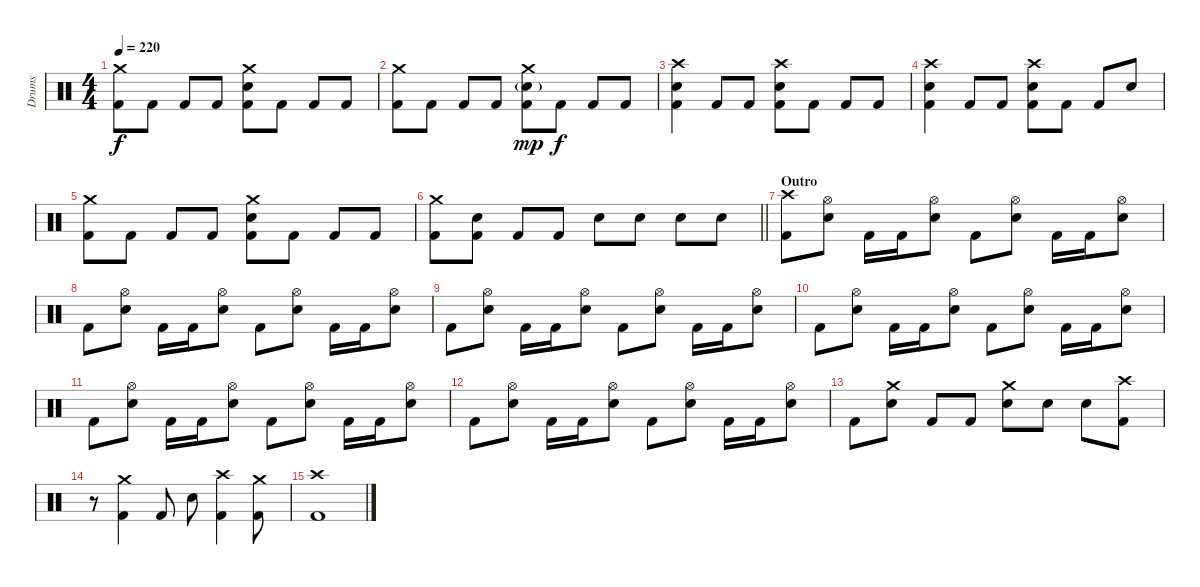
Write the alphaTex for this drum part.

\track ("Drums" "Drums") {instrument percussion}
\staff {score}
\articulation defaults
\ts (4 4)
\tempo 220
\clef neutral
\ks c
("Crash medium (hit)" "Kick (hit) 2").8{dy f} "Kick (hit) 2".8 "Kick (hit) 2".8 "Kick (hit) 2".8 ("Crash medium (hit)" "Snare (hit) 2" "Kick (hit) 2").8 "Kick (hit) 2".8 "Kick (hit) 2".8 "Kick (hit) 2".8 |
("Crash medium (hit)" "Kick (hit) 2").8 "Kick (hit) 2".8 "Kick (hit) 2".8 "Kick (hit) 2".8 ("Crash medium (hit)" "Snare (hit) 2"{g} "Kick (hit) 2").8{dy mp} "Kick (hit) 2".8{dy f} "Kick (hit) 2".8 "Kick (hit) 2".8 |
("Crash high (hit)" "Snare (hit) 2" "Kick (hit) 2").4 "Kick (hit) 2".8 "Kick (hit) 2".8 ("Crash high (hit)" "Snare (hit) 2" "Kick (hit) 2").8 "Kick (hit) 2".8 "Kick (hit) 2".8 "Kick (hit) 2".8 |
("Crash high (hit)" "Snare (hit) 2" "Kick (hit) 2").4 "Kick (hit) 2".8 "Kick (hit) 2".8 ("Crash high (hit)" "Snare (hit) 2" "Kick (hit) 2").8 "Kick (hit) 2".8 "Kick (hit) 2".8 "Snare (hit) 2".8 |
("Crash medium (hit)" "Kick (hit) 2").8 "Kick (hit) 2".8 "Kick (hit) 2".8 "Kick (hit) 2".8 ("Crash medium (hit)" "Snare (hit) 2" "Kick (hit) 2").8 "Kick (hit) 2".8 "Kick (hit) 2".8 "Kick (hit) 2".8 |
\barLineRight lightlight
("Crash medium (hit)" "Kick (hit) 2").8 ("Snare (hit) 2" "Kick (hit) 2").8 "Kick (hit) 2".8 "Kick (hit) 2".8 "Snare (hit) 2".8 "Snare (hit) 2".8 "Snare (hit) 2".8 "Snare (hit) 2".8 |
\section ("" "Outro")
("Crash high (hit)" "Kick (hit) 2").8 ("Hi-Hat (open)" "Snare (hit) 2").8 "Kick (hit) 2".16 "Kick (hit) 2".16 ("Hi-Hat (open)" "Snare (hit) 2").8 "Kick (hit) 2".8 ("Hi-Hat (open)" "Snare (hit) 2").8 "Kick (hit) 2".16 "Kick (hit) 2".16 ("Hi-Hat (open)" "Snare (hit) 2").8 |
"Kick (hit) 2".8 ("Hi-Hat (open)" "Snare (hit) 2").8 "Kick (hit) 2".16 "Kick (hit) 2".16 ("Hi-Hat (open)" "Snare (hit) 2").8 "Kick (hit) 2".8 ("Hi-Hat (open)" "Snare (hit) 2").8 "Kick (hit) 2".16 "Kick (hit) 2".16 ("Hi-Hat (open)" "Snare (hit) 2").8 |
"Kick (hit) 2".8 ("Hi-Hat (open)" "Snare (hit) 2").8 "Kick (hit) 2".16 "Kick (hit) 2".16 ("Hi-Hat (open)" "Snare (hit) 2").8 "Kick (hit) 2".8 ("Hi-Hat (open)" "Snare (hit) 2").8 "Kick (hit) 2".16 "Kick (hit) 2".16 ("Hi-Hat (open)" "Snare (hit) 2").8 |
"Kick (hit) 2".8 ("Hi-Hat (open)" "Snare (hit) 2").8 "Kick (hit) 2".16 "Kick (hit) 2".16 ("Hi-Hat (open)" "Snare (hit) 2").8 "Kick (hit) 2".8 ("Hi-Hat (open)" "Snare (hit) 2").8 "Kick (hit) 2".16 "Kick (hit) 2".16 ("Hi-Hat (open)" "Snare (hit) 2").8 |
"Kick (hit) 2".8 ("Hi-Hat (open)" "Snare (hit) 2").8 "Kick (hit) 2".16 "Kick (hit) 2".16 ("Hi-Hat (open)" "Snare (hit) 2").8 "Kick (hit) 2".8 ("Hi-Hat (open)" "Snare (hit) 2").8 "Kick (hit) 2".16 "Kick (hit) 2".16 ("Hi-Hat (open)" "Snare (hit) 2").8 |
"Kick (hit) 2".8 ("Hi-Hat (open)" "Snare (hit) 2").8 "Kick (hit) 2".16 "Kick (hit) 2".16 ("Hi-Hat (open)" "Snare (hit) 2").8 "Kick (hit) 2".8 ("Hi-Hat (open)" "Snare (hit) 2").8 "Kick (hit) 2".16 "Kick (hit) 2".16 ("Hi-Hat (open)" "Snare (hit) 2").8 |
"Kick (hit) 2".8 ("Crash medium (hit)" "Snare (hit) 2").8 "Kick (hit) 2".8 "Kick (hit) 2".8 ("Crash medium (hit)" "Snare (hit) 2").8 "Snare (hit) 2".8 "Snare (hit) 2".8 ("Crash high (hit)" "Kick (hit) 2").8 |
r.8 ("Crash medium (hit)" "Kick (hit) 2").4 "Kick (hit) 2".8 "Snare (hit) 2".8 ("Crash high (hit)" "Kick (hit) 2").4 ("Crash medium (hit)" "Kick (hit) 2").8 |
("Crash high (hit)" "Kick (hit) 2").1
